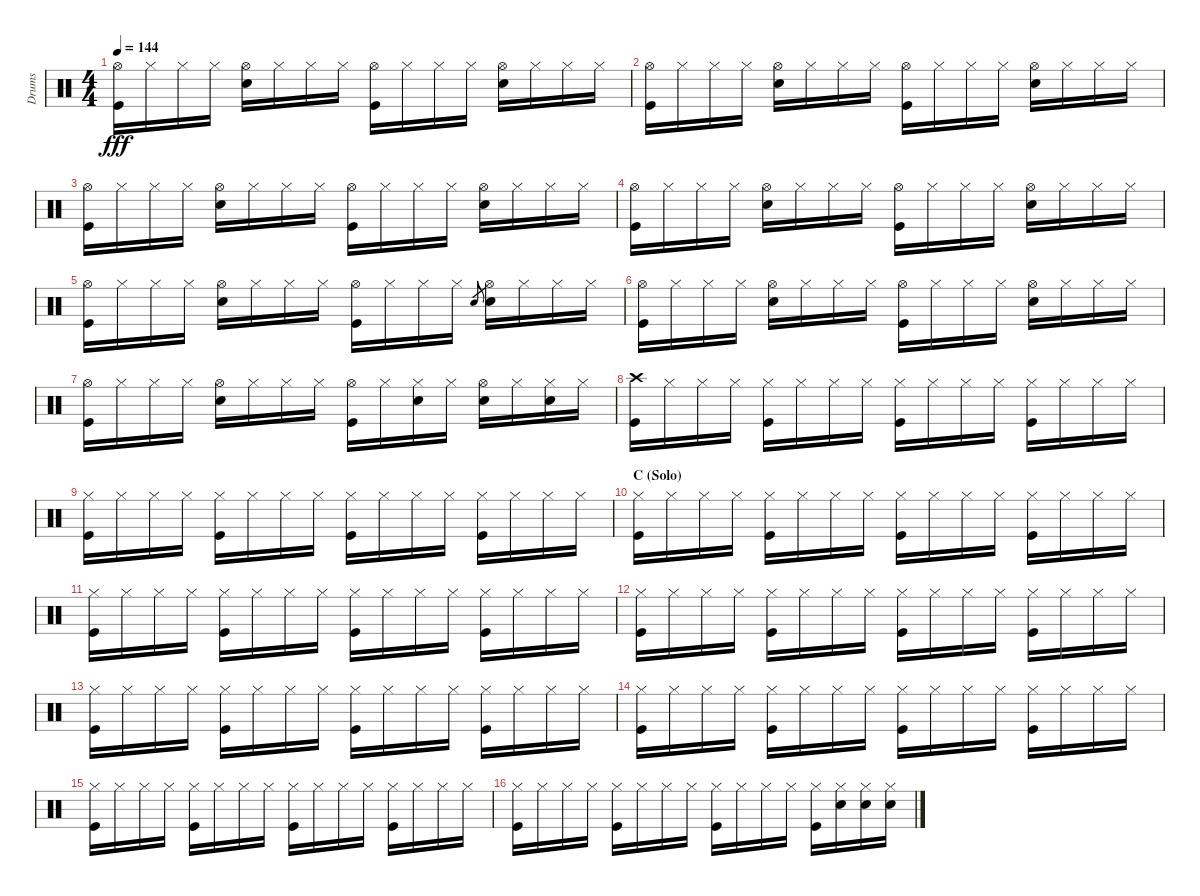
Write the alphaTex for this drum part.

\track ("Drums" "Drums") {instrument percussion}
\staff {score}
\articulation defaults
\ts (4 4)
\tempo 144
\clef neutral
\ks c
("Hi-Hat (open)" "Kick (hit)").16{dy fff} "Hi-Hat (closed)".16 "Hi-Hat (closed)".16 "Hi-Hat (closed)".16 ("Hi-Hat (open)" "Snare (hit) 2").16 "Hi-Hat (closed)".16 "Hi-Hat (closed)".16 "Hi-Hat (closed)".16 ("Hi-Hat (open)" "Kick (hit)").16 "Hi-Hat (closed)".16 "Hi-Hat (closed)".16 "Hi-Hat (closed)".16 ("Hi-Hat (open)" "Snare (hit) 2").16 "Hi-Hat (closed)".16 "Hi-Hat (closed)".16 "Hi-Hat (closed)".16 |
("Hi-Hat (open)" "Kick (hit)").16 "Hi-Hat (closed)".16 "Hi-Hat (closed)".16 "Hi-Hat (closed)".16 ("Hi-Hat (open)" "Snare (hit) 2").16 "Hi-Hat (closed)".16 "Hi-Hat (closed)".16 "Hi-Hat (closed)".16 ("Hi-Hat (open)" "Kick (hit)").16 "Hi-Hat (closed)".16 "Hi-Hat (closed)".16 "Hi-Hat (closed)".16 ("Hi-Hat (open)" "Snare (hit) 2").16 "Hi-Hat (closed)".16 "Hi-Hat (closed)".16 "Hi-Hat (closed)".16 |
("Hi-Hat (open)" "Kick (hit)").16 "Hi-Hat (closed)".16 "Hi-Hat (closed)".16 "Hi-Hat (closed)".16 ("Hi-Hat (open)" "Snare (hit) 2").16 "Hi-Hat (closed)".16 "Hi-Hat (closed)".16 "Hi-Hat (closed)".16 ("Hi-Hat (open)" "Kick (hit)").16 "Hi-Hat (closed)".16 "Hi-Hat (closed)".16 "Hi-Hat (closed)".16 ("Hi-Hat (open)" "Snare (hit) 2").16 "Hi-Hat (closed)".16 "Hi-Hat (closed)".16 "Hi-Hat (closed)".16 |
("Hi-Hat (open)" "Kick (hit)").16 "Hi-Hat (closed)".16 "Hi-Hat (closed)".16 "Hi-Hat (closed)".16 ("Hi-Hat (open)" "Snare (hit) 2").16 "Hi-Hat (closed)".16 "Hi-Hat (closed)".16 "Hi-Hat (closed)".16 ("Hi-Hat (open)" "Kick (hit)").16 "Hi-Hat (closed)".16 "Hi-Hat (closed)".16 "Hi-Hat (closed)".16 ("Hi-Hat (open)" "Snare (hit) 2").16 "Hi-Hat (closed)".16 "Hi-Hat (closed)".16 "Hi-Hat (closed)".16 |
("Hi-Hat (open)" "Kick (hit)").16 "Hi-Hat (closed)".16 "Hi-Hat (closed)".16 "Hi-Hat (closed)".16 ("Hi-Hat (open)" "Snare (hit) 2").16 "Hi-Hat (closed)".16 "Hi-Hat (closed)".16 "Hi-Hat (closed)".16 ("Hi-Hat (open)" "Kick (hit)").16 "Hi-Hat (closed)".16 "Hi-Hat (closed)".16 "Hi-Hat (closed)".16 "Snare (hit) 2".8{gr} ("Hi-Hat (open)" "Snare (hit) 2").16 "Hi-Hat (closed)".16 "Hi-Hat (closed)".16 "Hi-Hat (closed)".16 |
("Hi-Hat (open)" "Kick (hit)").16 "Hi-Hat (closed)".16 "Hi-Hat (closed)".16 "Hi-Hat (closed)".16 ("Hi-Hat (open)" "Snare (hit) 2").16 "Hi-Hat (closed)".16 "Hi-Hat (closed)".16 "Hi-Hat (closed)".16 ("Hi-Hat (open)" "Kick (hit)").16 "Hi-Hat (closed)".16 "Hi-Hat (closed)".16 "Hi-Hat (closed)".16 ("Hi-Hat (open)" "Snare (hit) 2").16 "Hi-Hat (closed)".16 "Hi-Hat (closed)".16 "Hi-Hat (closed)".16 |
("Hi-Hat (open)" "Kick (hit)").16 "Hi-Hat (closed)".16 "Hi-Hat (closed)".16 "Hi-Hat (closed)".16 ("Hi-Hat (open)" "Snare (hit) 2").16 "Hi-Hat (closed)".16 "Hi-Hat (closed)".16 "Hi-Hat (closed)".16 ("Hi-Hat (open)" "Kick (hit)").16 "Hi-Hat (closed)".16 ("Hi-Hat (closed)" "Snare (hit) 2").16 "Hi-Hat (closed)".16 ("Hi-Hat (open)" "Snare (hit) 2").16 "Hi-Hat (closed)".16 ("Hi-Hat (closed)" "Snare (hit) 2").16 "Hi-Hat (closed)".16 |
("Crash high (hit)" "Kick (hit)").16 "Hi-Hat (closed)".16 "Hi-Hat (closed)".16 "Hi-Hat (closed)".16 ("Hi-Hat (closed)" "Kick (hit)").16 "Hi-Hat (closed)".16 "Hi-Hat (closed)".16 "Hi-Hat (closed)".16 ("Hi-Hat (closed)" "Kick (hit)").16 "Hi-Hat (closed)".16 "Hi-Hat (closed)".16 "Hi-Hat (closed)".16 ("Hi-Hat (closed)" "Kick (hit)").16 "Hi-Hat (closed)".16 "Hi-Hat (closed)".16 "Hi-Hat (closed)".16 |
("Hi-Hat (closed)" "Kick (hit)").16 "Hi-Hat (closed)".16 "Hi-Hat (closed)".16 "Hi-Hat (closed)".16 ("Hi-Hat (closed)" "Kick (hit)").16 "Hi-Hat (closed)".16 "Hi-Hat (closed)".16 "Hi-Hat (closed)".16 ("Hi-Hat (closed)" "Kick (hit)").16 "Hi-Hat (closed)".16 "Hi-Hat (closed)".16 "Hi-Hat (closed)".16 ("Hi-Hat (closed)" "Kick (hit)").16 "Hi-Hat (closed)".16 "Hi-Hat (closed)".16 "Hi-Hat (closed)".16 |
\section ("" "C (Solo)")
("Hi-Hat (closed)" "Kick (hit)").16 "Hi-Hat (closed)".16 "Hi-Hat (closed)".16 "Hi-Hat (closed)".16 ("Hi-Hat (closed)" "Kick (hit)").16 "Hi-Hat (closed)".16 "Hi-Hat (closed)".16 "Hi-Hat (closed)".16 ("Hi-Hat (closed)" "Kick (hit)").16 "Hi-Hat (closed)".16 "Hi-Hat (closed)".16 "Hi-Hat (closed)".16 ("Hi-Hat (closed)" "Kick (hit)").16 "Hi-Hat (closed)".16 "Hi-Hat (closed)".16 "Hi-Hat (closed)".16 |
("Hi-Hat (closed)" "Kick (hit)").16 "Hi-Hat (closed)".16 "Hi-Hat (closed)".16 "Hi-Hat (closed)".16 ("Hi-Hat (closed)" "Kick (hit)").16 "Hi-Hat (closed)".16 "Hi-Hat (closed)".16 "Hi-Hat (closed)".16 ("Hi-Hat (closed)" "Kick (hit)").16 "Hi-Hat (closed)".16 "Hi-Hat (closed)".16 "Hi-Hat (closed)".16 ("Hi-Hat (closed)" "Kick (hit)").16 "Hi-Hat (closed)".16 "Hi-Hat (closed)".16 "Hi-Hat (closed)".16 |
("Hi-Hat (closed)" "Kick (hit)").16 "Hi-Hat (closed)".16 "Hi-Hat (closed)".16 "Hi-Hat (closed)".16 ("Hi-Hat (closed)" "Kick (hit)").16 "Hi-Hat (closed)".16 "Hi-Hat (closed)".16 "Hi-Hat (closed)".16 ("Hi-Hat (closed)" "Kick (hit)").16 "Hi-Hat (closed)".16 "Hi-Hat (closed)".16 "Hi-Hat (closed)".16 ("Hi-Hat (closed)" "Kick (hit)").16 "Hi-Hat (closed)".16 "Hi-Hat (closed)".16 "Hi-Hat (closed)".16 |
("Hi-Hat (closed)" "Kick (hit)").16 "Hi-Hat (closed)".16 "Hi-Hat (closed)".16 "Hi-Hat (closed)".16 ("Hi-Hat (closed)" "Kick (hit)").16 "Hi-Hat (closed)".16 "Hi-Hat (closed)".16 "Hi-Hat (closed)".16 ("Hi-Hat (closed)" "Kick (hit)").16 "Hi-Hat (closed)".16 "Hi-Hat (closed)".16 "Hi-Hat (closed)".16 ("Hi-Hat (closed)" "Kick (hit)").16 "Hi-Hat (closed)".16 "Hi-Hat (closed)".16 "Hi-Hat (closed)".16 |
("Hi-Hat (closed)" "Kick (hit)").16 "Hi-Hat (closed)".16 "Hi-Hat (closed)".16 "Hi-Hat (closed)".16 ("Hi-Hat (closed)" "Kick (hit)").16 "Hi-Hat (closed)".16 "Hi-Hat (closed)".16 "Hi-Hat (closed)".16 ("Hi-Hat (closed)" "Kick (hit)").16 "Hi-Hat (closed)".16 "Hi-Hat (closed)".16 "Hi-Hat (closed)".16 ("Hi-Hat (closed)" "Kick (hit)").16 "Hi-Hat (closed)".16 "Hi-Hat (closed)".16 "Hi-Hat (closed)".16 |
("Hi-Hat (closed)" "Kick (hit)").16 "Hi-Hat (closed)".16 "Hi-Hat (closed)".16 "Hi-Hat (closed)".16 ("Hi-Hat (closed)" "Kick (hit)").16 "Hi-Hat (closed)".16 "Hi-Hat (closed)".16 "Hi-Hat (closed)".16 ("Hi-Hat (closed)" "Kick (hit)").16 "Hi-Hat (closed)".16 "Hi-Hat (closed)".16 "Hi-Hat (closed)".16 ("Hi-Hat (closed)" "Kick (hit)").16 "Hi-Hat (closed)".16 "Hi-Hat (closed)".16 "Hi-Hat (closed)".16 |
("Hi-Hat (closed)" "Kick (hit)").16 "Hi-Hat (closed)".16 "Hi-Hat (closed)".16 "Hi-Hat (closed)".16 ("Hi-Hat (closed)" "Kick (hit)").16 "Hi-Hat (closed)".16 "Hi-Hat (closed)".16 "Hi-Hat (closed)".16 ("Hi-Hat (closed)" "Kick (hit)").16 "Hi-Hat (closed)".16 "Hi-Hat (closed)".16 "Hi-Hat (closed)".16 ("Hi-Hat (closed)" "Kick (hit)").16 ("Hi-Hat (closed)" "Snare (hit) 2").16 ("Hi-Hat (closed)" "Snare (hit) 2").16 ("Hi-Hat (closed)" "Snare (hit) 2").16
